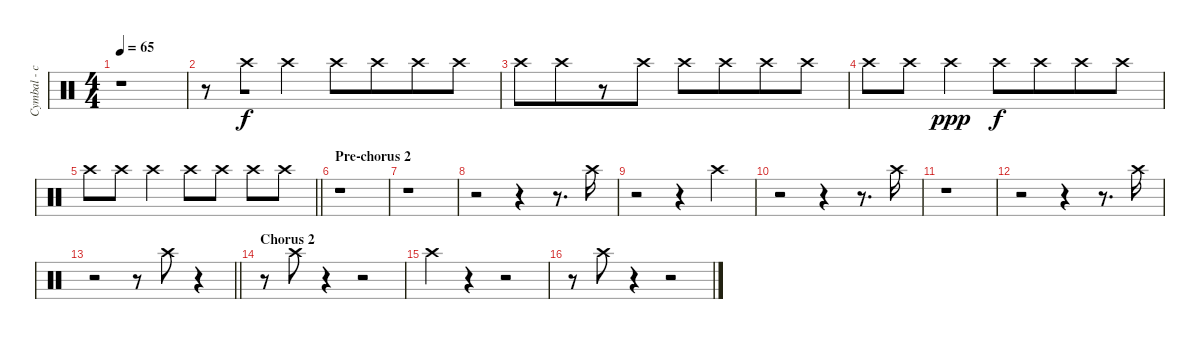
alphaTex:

\track ("Cymbal - crash - left" "Cymbal - c") {instrument percussion}
\staff {score}
\articulation defaults
\ts (4 4)
\tempo 65
\clef neutral
\ks c
r.1{dy f} |
r.8 "Crash high (hit)".8{beam merge} "Crash high (hit)".4 "Crash high (hit)".8 "Crash high (hit)".8{beam merge} "Crash high (hit)".8 "Crash high (hit)".8 |
"Crash high (hit)".8 "Crash high (hit)".8{beam merge} r.8 "Crash high (hit)".8 "Crash high (hit)".8 "Crash high (hit)".8{beam merge} "Crash high (hit)".8 "Crash high (hit)".8 |
"Crash high (hit)".8 "Crash high (hit)".8{beam merge} "Crash high (hit)".4{dy ppp} "Crash high (hit)".8{dy f} "Crash high (hit)".8{beam merge} "Crash high (hit)".8 "Crash high (hit)".8 |
\barLineRight lightlight "Crash high (hit)".8 "Crash high (hit)".8{beam merge} "Crash high (hit)".4 "Crash high (hit)".8 "Crash high (hit)".8{beam split} "Crash high (hit)".8 "Crash high (hit)".8
|
\section ("" "Pre-chorus 2")
r.1 |
r.1 |
r.2 r.4 r.8{d} "Crash high (hit)".16 |
r.2 r.4 "Crash high (hit)".4 |
r.2 r.4 r.8{d} "Crash high (hit)".16 |
r.1 |
r.2 r.4 r.8{d} "Crash high (hit)".16 |
\barLineRight lightlight
r.2 r.8 "Crash high (hit)".8 r.4 |
\section ("" "Chorus 2")
r.8 "Crash high (hit)".8 r.4 r.2 |
"Crash high (hit)".4 r.4 r.2 |
r.8 "Crash high (hit)".8 r.4 r.2
